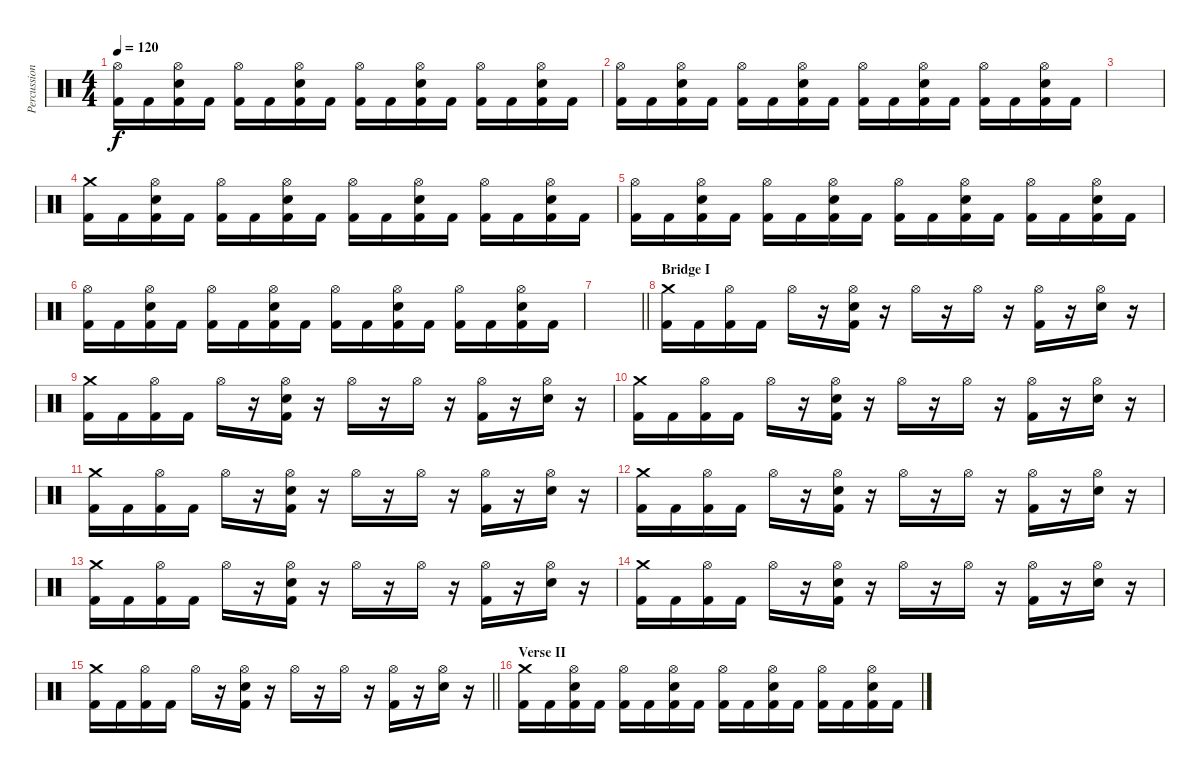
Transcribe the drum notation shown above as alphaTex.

\track ("Percussion" "Percussion") {instrument percussion}
\staff {score}
\articulation defaults
\ts (4 4)
\tempo 120
\clef neutral
\ks c
("Hi-Hat (open)" "Kick (hit) 2").16{dy f} "Kick (hit) 2".16 ("Hi-Hat (open)" "Electric Snare (hit)" "Kick (hit) 2").16 "Kick (hit) 2".16 ("Hi-Hat (open)" "Kick (hit) 2").16 "Kick (hit) 2".16 ("Hi-Hat (open)" "Electric Snare (hit)" "Kick (hit) 2").16 "Kick (hit) 2".16 ("Hi-Hat (open)" "Kick (hit) 2").16 "Kick (hit) 2".16 ("Hi-Hat (open)" "Electric Snare (hit)" "Kick (hit) 2").16 "Kick (hit) 2".16 ("Hi-Hat (open)" "Kick (hit) 2").16 "Kick (hit) 2".16 ("Hi-Hat (open)" "Electric Snare (hit)" "Kick (hit) 2").16 "Kick (hit) 2".16 |
("Hi-Hat (open)" "Kick (hit) 2").16 "Kick (hit) 2".16 ("Hi-Hat (open)" "Electric Snare (hit)" "Kick (hit) 2").16 "Kick (hit) 2".16 ("Hi-Hat (open)" "Kick (hit) 2").16 "Kick (hit) 2".16 ("Hi-Hat (open)" "Electric Snare (hit)" "Kick (hit) 2").16 "Kick (hit) 2".16 ("Hi-Hat (open)" "Kick (hit) 2").16 "Kick (hit) 2".16 ("Hi-Hat (open)" "Electric Snare (hit)" "Kick (hit) 2").16 "Kick (hit) 2".16 ("Hi-Hat (open)" "Kick (hit) 2").16 "Kick (hit) 2".16 ("Hi-Hat (open)" "Electric Snare (hit)" "Kick (hit) 2").16 "Kick (hit) 2".16 |
|
("Crash medium (hit)" "Kick (hit) 2").16 "Kick (hit) 2".16 ("Hi-Hat (open)" "Electric Snare (hit)" "Kick (hit) 2").16 "Kick (hit) 2".16 ("Hi-Hat (open)" "Kick (hit) 2").16 "Kick (hit) 2".16 ("Hi-Hat (open)" "Electric Snare (hit)" "Kick (hit) 2").16 "Kick (hit) 2".16 ("Hi-Hat (open)" "Kick (hit) 2").16 "Kick (hit) 2".16 ("Hi-Hat (open)" "Electric Snare (hit)" "Kick (hit) 2").16 "Kick (hit) 2".16 ("Hi-Hat (open)" "Kick (hit) 2").16 "Kick (hit) 2".16 ("Hi-Hat (open)" "Electric Snare (hit)" "Kick (hit) 2").16 "Kick (hit) 2".16 |
("Hi-Hat (open)" "Kick (hit) 2").16 "Kick (hit) 2".16 ("Hi-Hat (open)" "Electric Snare (hit)" "Kick (hit) 2").16 "Kick (hit) 2".16 ("Hi-Hat (open)" "Kick (hit) 2").16 "Kick (hit) 2".16 ("Hi-Hat (open)" "Electric Snare (hit)" "Kick (hit) 2").16 "Kick (hit) 2".16 ("Hi-Hat (open)" "Kick (hit) 2").16 "Kick (hit) 2".16 ("Hi-Hat (open)" "Electric Snare (hit)" "Kick (hit) 2").16 "Kick (hit) 2".16 ("Hi-Hat (open)" "Kick (hit) 2").16 "Kick (hit) 2".16 ("Hi-Hat (open)" "Electric Snare (hit)" "Kick (hit) 2").16 "Kick (hit) 2".16 |
("Hi-Hat (open)" "Kick (hit) 2").16 "Kick (hit) 2".16 ("Hi-Hat (open)" "Electric Snare (hit)" "Kick (hit) 2").16 "Kick (hit) 2".16 ("Hi-Hat (open)" "Kick (hit) 2").16 "Kick (hit) 2".16 ("Hi-Hat (open)" "Electric Snare (hit)" "Kick (hit) 2").16 "Kick (hit) 2".16 ("Hi-Hat (open)" "Kick (hit) 2").16 "Kick (hit) 2".16 ("Hi-Hat (open)" "Electric Snare (hit)" "Kick (hit) 2").16 "Kick (hit) 2".16 ("Hi-Hat (open)" "Kick (hit) 2").16 "Kick (hit) 2".16 ("Hi-Hat (open)" "Electric Snare (hit)" "Kick (hit) 2").16 "Kick (hit) 2".16 |
\barLineRight lightlight
|
\section ("" "Bridge I")
("Crash medium (hit)" "Kick (hit) 2").16 "Kick (hit) 2".16 ("Hi-Hat (open)" "Kick (hit) 2").16 "Kick (hit) 2".16 "Hi-Hat (open)".16 r.16 ("Hi-Hat (open)" "Electric Snare (hit)" "Kick (hit) 2").16 r.16 "Hi-Hat (open)".16 r.16 "Hi-Hat (open)".16 r.16 ("Hi-Hat (open)" "Kick (hit) 2").16 r.16 ("Hi-Hat (open)" "Electric Snare (hit)").16 r.16 |
("Crash medium (hit)" "Kick (hit) 2").16 "Kick (hit) 2".16 ("Hi-Hat (open)" "Kick (hit) 2").16 "Kick (hit) 2".16 "Hi-Hat (open)".16 r.16 ("Hi-Hat (open)" "Electric Snare (hit)" "Kick (hit) 2").16 r.16 "Hi-Hat (open)".16 r.16 "Hi-Hat (open)".16 r.16 ("Hi-Hat (open)" "Kick (hit) 2").16 r.16 ("Hi-Hat (open)" "Electric Snare (hit)").16 r.16 |
("Crash medium (hit)" "Kick (hit) 2").16 "Kick (hit) 2".16 ("Hi-Hat (open)" "Kick (hit) 2").16 "Kick (hit) 2".16 "Hi-Hat (open)".16 r.16 ("Hi-Hat (open)" "Electric Snare (hit)" "Kick (hit) 2").16 r.16 "Hi-Hat (open)".16 r.16 "Hi-Hat (open)".16 r.16 ("Hi-Hat (open)" "Kick (hit) 2").16 r.16 ("Hi-Hat (open)" "Electric Snare (hit)").16 r.16 |
("Crash medium (hit)" "Kick (hit) 2").16 "Kick (hit) 2".16 ("Hi-Hat (open)" "Kick (hit) 2").16 "Kick (hit) 2".16 "Hi-Hat (open)".16 r.16 ("Hi-Hat (open)" "Electric Snare (hit)" "Kick (hit) 2").16 r.16 "Hi-Hat (open)".16 r.16 "Hi-Hat (open)".16 r.16 ("Hi-Hat (open)" "Kick (hit) 2").16 r.16 ("Hi-Hat (open)" "Electric Snare (hit)").16 r.16 |
("Crash medium (hit)" "Kick (hit) 2").16 "Kick (hit) 2".16 ("Hi-Hat (open)" "Kick (hit) 2").16 "Kick (hit) 2".16 "Hi-Hat (open)".16 r.16 ("Hi-Hat (open)" "Electric Snare (hit)" "Kick (hit) 2").16 r.16 "Hi-Hat (open)".16 r.16 "Hi-Hat (open)".16 r.16 ("Hi-Hat (open)" "Kick (hit) 2").16 r.16 ("Hi-Hat (open)" "Electric Snare (hit)").16 r.16 |
("Crash medium (hit)" "Kick (hit) 2").16 "Kick (hit) 2".16 ("Hi-Hat (open)" "Kick (hit) 2").16 "Kick (hit) 2".16 "Hi-Hat (open)".16 r.16 ("Hi-Hat (open)" "Electric Snare (hit)" "Kick (hit) 2").16 r.16 "Hi-Hat (open)".16 r.16 "Hi-Hat (open)".16 r.16 ("Hi-Hat (open)" "Kick (hit) 2").16 r.16 ("Hi-Hat (open)" "Electric Snare (hit)").16 r.16 |
("Crash medium (hit)" "Kick (hit) 2").16 "Kick (hit) 2".16 ("Hi-Hat (open)" "Kick (hit) 2").16 "Kick (hit) 2".16 "Hi-Hat (open)".16 r.16 ("Hi-Hat (open)" "Electric Snare (hit)" "Kick (hit) 2").16 r.16 "Hi-Hat (open)".16 r.16 "Hi-Hat (open)".16 r.16 ("Hi-Hat (open)" "Kick (hit) 2").16 r.16 ("Hi-Hat (open)" "Electric Snare (hit)").16 r.16 |
\barLineRight lightlight
("Crash medium (hit)" "Kick (hit) 2").16 "Kick (hit) 2".16 ("Hi-Hat (open)" "Kick (hit) 2").16 "Kick (hit) 2".16 "Hi-Hat (open)".16 r.16 ("Hi-Hat (open)" "Electric Snare (hit)" "Kick (hit) 2").16 r.16 "Hi-Hat (open)".16 r.16 "Hi-Hat (open)".16 r.16 ("Hi-Hat (open)" "Kick (hit) 2").16 r.16 ("Hi-Hat (open)" "Electric Snare (hit)").16 r.16 |
\section ("" "Verse II")
("Crash medium (hit)" "Kick (hit) 2").16 "Kick (hit) 2".16 ("Hi-Hat (open)" "Electric Snare (hit)" "Kick (hit) 2").16 "Kick (hit) 2".16 ("Hi-Hat (open)" "Kick (hit) 2").16 "Kick (hit) 2".16 ("Hi-Hat (open)" "Electric Snare (hit)" "Kick (hit) 2").16 "Kick (hit) 2".16 ("Hi-Hat (open)" "Kick (hit) 2").16 "Kick (hit) 2".16 ("Hi-Hat (open)" "Electric Snare (hit)" "Kick (hit) 2").16 "Kick (hit) 2".16 ("Hi-Hat (open)" "Kick (hit) 2").16 "Kick (hit) 2".16 ("Hi-Hat (open)" "Electric Snare (hit)" "Kick (hit) 2").16 "Kick (hit) 2".16
